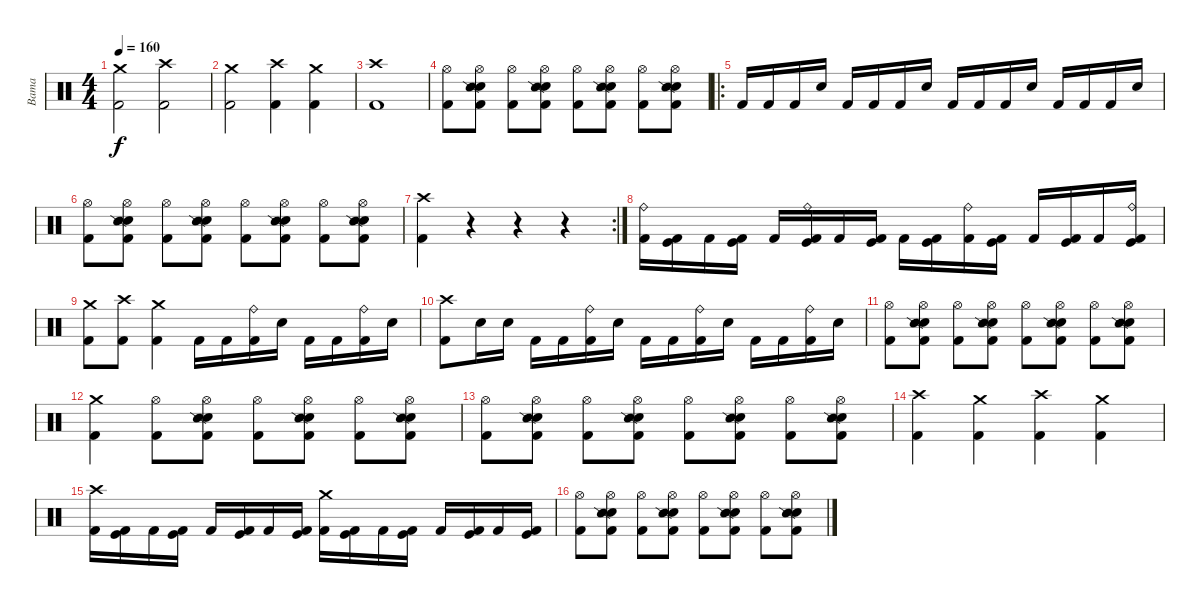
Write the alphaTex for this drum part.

\track ("Bama" "Bama") {instrument percussion}
\staff {score}
\articulation defaults
\ts (4 4)
\tempo 160
\clef neutral
\ks c
("Crash medium (hit)" "Kick (hit) 2").2{dy f} ("Crash high (hit)" "Kick (hit) 2").2 |
("Crash medium (hit)" "Kick (hit) 2").2 ("Crash high (hit)" "Kick (hit) 2").4 ("Crash medium (hit)" "Kick (hit) 2").4 |
("Crash high (hit)" "Kick (hit) 2").1 |
("Hi-Hat (open)" "Kick (hit) 2").8 ("Hi-Hat (open)" "Electric Snare (hit)" "Snare (side stick) 2" "Kick (hit) 2").8 ("Hi-Hat (open)" "Kick (hit) 2").8 ("Hi-Hat (open)" "Electric Snare (hit)" "Snare (side stick) 2" "Kick (hit) 2").8 ("Hi-Hat (open)" "Kick (hit) 2").8 ("Hi-Hat (open)" "Electric Snare (hit)" "Snare (side stick) 2" "Kick (hit) 2").8 ("Hi-Hat (open)" "Kick (hit) 2").8 ("Hi-Hat (open)" "Electric Snare (hit)" "Snare (side stick) 2" "Kick (hit) 2").8 |
\ro "Kick (hit) 2".16 "Kick (hit) 2".16 "Kick (hit) 2".16 "Electric Snare (hit)".16 "Kick (hit) 2".16 "Kick (hit) 2".16 "Kick (hit) 2".16 "Electric Snare (hit)".16 "Kick (hit) 2".16 "Kick (hit) 2".16 "Kick (hit) 2".16 "Electric Snare (hit)".16 "Kick (hit) 2".16 "Kick (hit) 2".16 "Kick (hit) 2".16 "Electric Snare (hit)".16
|
("Hi-Hat (open)" "Kick (hit) 2").8 ("Hi-Hat (open)" "Electric Snare (hit)" "Snare (side stick) 2" "Kick (hit) 2").8 ("Hi-Hat (open)" "Kick (hit) 2").8 ("Hi-Hat (open)" "Electric Snare (hit)" "Snare (side stick) 2" "Kick (hit) 2").8 ("Hi-Hat (open)" "Kick (hit) 2").8 ("Hi-Hat (open)" "Electric Snare (hit)" "Snare (side stick) 2" "Kick (hit) 2").8 ("Hi-Hat (open)" "Kick (hit) 2").8 ("Hi-Hat (open)" "Electric Snare (hit)" "Snare (side stick) 2" "Kick (hit) 2").8 |
\rc 2
("Crash high (hit)" "Kick (hit) 2").4 r.4 r.4 r.4 |
("Ride (bell)" "Kick (hit) 2").16 ("Kick (hit)" "Kick (hit) 2").16 "Kick (hit) 2".16 ("Kick (hit)" "Kick (hit) 2").16 "Kick (hit) 2".16 ("Ride (bell)" "Kick (hit)" "Kick (hit) 2").16 "Kick (hit) 2".16 ("Kick (hit)" "Kick (hit) 2").16 "Kick (hit) 2".16 ("Kick (hit)" "Kick (hit) 2").16 ("Ride (bell)" "Kick (hit) 2").16 ("Kick (hit)" "Kick (hit) 2").16 "Kick (hit) 2".16 ("Kick (hit)" "Kick (hit) 2").16 "Kick (hit) 2".16 ("Ride (bell)" "Kick (hit)" "Kick (hit) 2").16 |
("Crash medium (hit)" "Kick (hit) 2").8 ("Crash high (hit)" "Kick (hit) 2").8 ("Crash medium (hit)" "Kick (hit) 2").4 "Kick (hit) 2".16 "Kick (hit) 2".16 ("Ride (bell)" "Kick (hit) 2").16 "Electric Snare (hit)".16 "Kick (hit) 2".16 "Kick (hit) 2".16 ("Ride (bell)" "Kick (hit) 2").16 "Electric Snare (hit)".16 |
("Crash high (hit)" "Kick (hit) 2").8 "Electric Snare (hit)".16 "Electric Snare (hit)".16 "Kick (hit) 2".16 "Kick (hit) 2".16 ("Ride (bell)" "Kick (hit) 2").16 "Electric Snare (hit)".16 "Kick (hit) 2".16 "Kick (hit) 2".16 ("Ride (bell)" "Kick (hit) 2").16 "Electric Snare (hit)".16 "Kick (hit) 2".16 "Kick (hit) 2".16 ("Ride (bell)" "Kick (hit) 2").16 "Electric Snare (hit)".16 |
("Hi-Hat (open)" "Kick (hit) 2").8 ("Hi-Hat (open)" "Electric Snare (hit)" "Snare (side stick) 2" "Kick (hit) 2").8 ("Hi-Hat (open)" "Kick (hit) 2").8 ("Hi-Hat (open)" "Electric Snare (hit)" "Snare (side stick) 2" "Kick (hit) 2").8 ("Hi-Hat (open)" "Kick (hit) 2").8 ("Hi-Hat (open)" "Electric Snare (hit)" "Snare (side stick) 2" "Kick (hit) 2").8 ("Hi-Hat (open)" "Kick (hit) 2").8 ("Hi-Hat (open)" "Electric Snare (hit)" "Snare (side stick) 2" "Kick (hit) 2").8 |
("Crash medium (hit)" "Kick (hit) 2").4 ("Hi-Hat (open)" "Kick (hit) 2").8 ("Hi-Hat (open)" "Electric Snare (hit)" "Snare (side stick) 2" "Kick (hit) 2").8 ("Hi-Hat (open)" "Kick (hit) 2").8 ("Hi-Hat (open)" "Electric Snare (hit)" "Snare (side stick) 2" "Kick (hit) 2").8 ("Hi-Hat (open)" "Kick (hit) 2").8 ("Hi-Hat (open)" "Electric Snare (hit)" "Snare (side stick) 2" "Kick (hit) 2").8 |
("Hi-Hat (open)" "Kick (hit) 2").8 ("Hi-Hat (open)" "Electric Snare (hit)" "Snare (side stick) 2" "Kick (hit) 2").8 ("Hi-Hat (open)" "Kick (hit) 2").8 ("Hi-Hat (open)" "Electric Snare (hit)" "Snare (side stick) 2" "Kick (hit) 2").8 ("Hi-Hat (open)" "Kick (hit) 2").8 ("Hi-Hat (open)" "Electric Snare (hit)" "Snare (side stick) 2" "Kick (hit) 2").8 ("Hi-Hat (open)" "Kick (hit) 2").8 ("Hi-Hat (open)" "Electric Snare (hit)" "Snare (side stick) 2" "Kick (hit) 2").8 |
("Crash high (hit)" "Kick (hit) 2").4 ("Crash medium (hit)" "Kick (hit) 2").4 ("Crash high (hit)" "Kick (hit) 2").4 ("Crash medium (hit)" "Kick (hit) 2").4 |
("Crash high (hit)" "Kick (hit) 2").16 ("Kick (hit)" "Kick (hit) 2").16 "Kick (hit) 2".16 ("Kick (hit)" "Kick (hit) 2").16 "Kick (hit) 2".16 ("Kick (hit)" "Kick (hit) 2").16 "Kick (hit) 2".16 ("Kick (hit)" "Kick (hit) 2").16 ("Crash medium (hit)" "Kick (hit) 2").16 ("Kick (hit)" "Kick (hit) 2").16 "Kick (hit) 2".16 ("Kick (hit)" "Kick (hit) 2").16 "Kick (hit) 2".16 ("Kick (hit)" "Kick (hit) 2").16 "Kick (hit) 2".16 ("Kick (hit)" "Kick (hit) 2").16 |
("Hi-Hat (open)" "Kick (hit) 2").8 ("Hi-Hat (open)" "Electric Snare (hit)" "Snare (side stick) 2" "Kick (hit) 2").8 ("Hi-Hat (open)" "Kick (hit) 2").8 ("Hi-Hat (open)" "Electric Snare (hit)" "Snare (side stick) 2" "Kick (hit) 2").8 ("Hi-Hat (open)" "Kick (hit) 2").8 ("Hi-Hat (open)" "Electric Snare (hit)" "Snare (side stick) 2" "Kick (hit) 2").8 ("Hi-Hat (open)" "Kick (hit) 2").8 ("Hi-Hat (open)" "Electric Snare (hit)" "Snare (side stick) 2" "Kick (hit) 2").8
